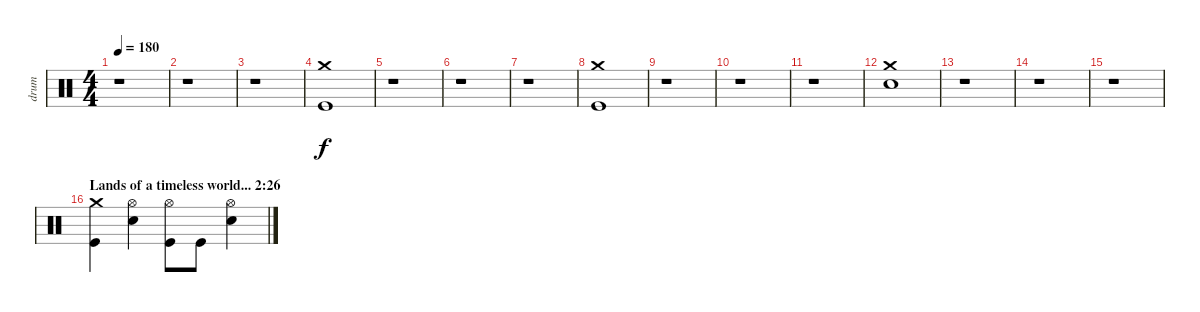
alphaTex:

\track ("drum" "drum") {instrument percussion}
\staff {score}
\articulation defaults
\ts (4 4)
\tempo 180
\clef neutral
\ks c
r.1{dy f} |
r.1 |
r.1 |
("Crash medium (hit)" "Kick (hit)").1 |
r.1 |
r.1 |
r.1 |
("Crash medium (hit)" "Kick (hit)").1 |
r.1 |
r.1 |
r.1 |
("Crash medium (hit)" "Snare (hit) 2").1 |
r.1 |
r.1 |
r.1 |
\section ("" "Lands of a timeless world... 2:26")
("Crash medium (hit)" "Kick (hit)").4 ("Hi-Hat (open)" "Snare (hit) 2").4 ("Hi-Hat (open)" "Kick (hit)").8 "Kick (hit)".8 ("Hi-Hat (open)" "Snare (hit) 2").4
